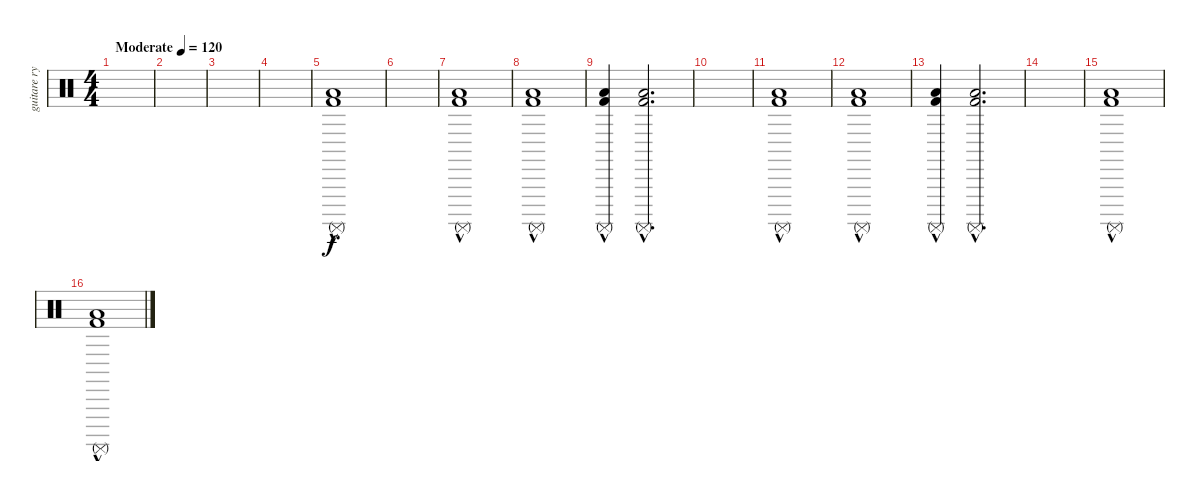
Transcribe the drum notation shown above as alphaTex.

\track ("guitare rythmique PERCUSIONS" "guitare ry") {instrument percussion}
\staff {score}
\articulation defaults
\ts (4 4)
\tempo (120 "Moderate")
\clef neutral
\ks c
|
|
|
|
("Surdo (mute)"{hac} "Low Floor Tom (hit)"{hac} "Kick (hit) 2"{hac}).1 |
|
("Surdo (mute)"{hac} "Low Floor Tom (hit)"{hac} "Kick (hit) 2"{hac}).1 |
("Surdo (mute)"{hac} "Low Floor Tom (hit)"{hac} "Kick (hit) 2"{hac}).1 |
("Surdo (mute)"{hac} "Low Floor Tom (hit)"{hac} "Kick (hit) 2"{hac}).4 ("Surdo (mute)"{hac} "Low Floor Tom (hit)"{hac} "Kick (hit) 2"{hac}).2{d} |
|
("Surdo (mute)"{hac} "Low Floor Tom (hit)"{hac} "Kick (hit) 2"{hac}).1 |
("Surdo (mute)"{hac} "Low Floor Tom (hit)"{hac} "Kick (hit) 2"{hac}).1 |
("Surdo (mute)"{hac} "Low Floor Tom (hit)"{hac} "Kick (hit) 2"{hac}).4 ("Surdo (mute)"{hac} "Low Floor Tom (hit)"{hac} "Kick (hit) 2"{hac}).2{d} |
|
("Surdo (mute)"{hac} "Low Floor Tom (hit)"{hac} "Kick (hit) 2"{hac}).1 |
("Surdo (mute)"{hac} "Low Floor Tom (hit)"{hac} "Kick (hit) 2"{hac}).1
